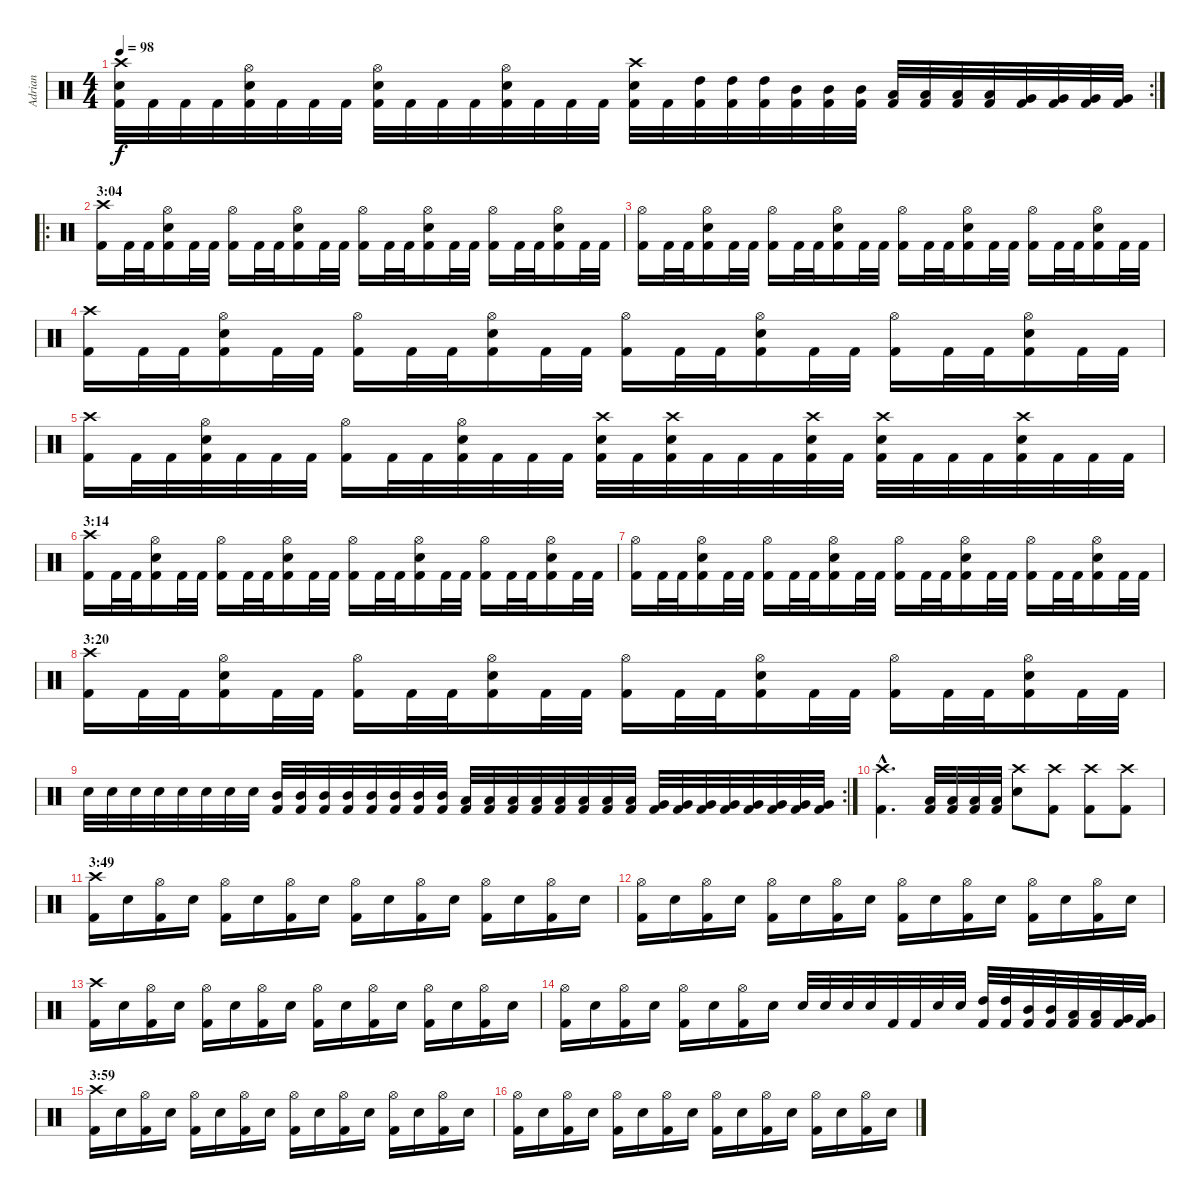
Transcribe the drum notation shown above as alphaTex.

\track ("Adrian" "Adrian") {instrument percussion}
\staff {score}
\articulation defaults
\rc 2
\ts (4 4)
\tempo 98
\clef neutral
\ks c
("Kick (hit) 2" "Snare (hit) 2" "Crash high (hit)").32{dy f} "Kick (hit) 2".32 "Kick (hit) 2".32 "Kick (hit) 2".32 ("Kick (hit) 2" "Snare (hit) 2" "Hi-Hat (open)").32 "Kick (hit) 2".32 "Kick (hit) 2".32 "Kick (hit) 2".32 ("Kick (hit) 2" "Snare (hit) 2" "Hi-Hat (open)").32 "Kick (hit) 2".32 "Kick (hit) 2".32 "Kick (hit) 2".32 ("Kick (hit) 2" "Snare (hit) 2" "Hi-Hat (open)").32 "Kick (hit) 2".32 "Kick (hit) 2".32 "Kick (hit) 2".32 ("Kick (hit) 2" "Snare (hit) 2" "Crash high (hit)").32 "Kick (hit) 2".32 ("Kick (hit) 2" "High Tom (hit)").32 ("Kick (hit) 2" "High Tom (hit)").32 ("Kick (hit) 2" "High Tom (hit)").32 ("Kick (hit) 2" "Mid Tom (hit)").32 ("Kick (hit) 2" "Mid Tom (hit)").32 ("Kick (hit) 2" "Mid Tom (hit)").32 ("Kick (hit) 2" "Low Tom (hit)").32 ("Kick (hit) 2" "Low Tom (hit)").32 ("Kick (hit) 2" "Low Tom (hit)").32 ("Kick (hit) 2" "Low Tom (hit)").32 ("Kick (hit) 2" "Very Low Tom (hit)").32 ("Kick (hit) 2" "Very Low Tom (hit)").32 ("Kick (hit) 2" "Very Low Tom (hit)").32 ("Kick (hit) 2" "Very Low Tom (hit)").32 |
\ro
\section ("" "3:04")
("Kick (hit) 2" "Crash high (hit)").16 "Kick (hit) 2".32 "Kick (hit) 2".32 ("Kick (hit) 2" "Snare (hit) 2" "Hi-Hat (open)").16 "Kick (hit) 2".32 "Kick (hit) 2".32 ("Kick (hit) 2" "Hi-Hat (open)").16 "Kick (hit) 2".32 "Kick (hit) 2".32 ("Kick (hit) 2" "Snare (hit) 2" "Hi-Hat (open)").16 "Kick (hit) 2".32 "Kick (hit) 2".32 ("Kick (hit) 2" "Hi-Hat (open)").16 "Kick (hit) 2".32 "Kick (hit) 2".32 ("Kick (hit) 2" "Snare (hit) 2" "Hi-Hat (open)").16 "Kick (hit) 2".32 "Kick (hit) 2".32 ("Kick (hit) 2" "Hi-Hat (open)").16 "Kick (hit) 2".32 "Kick (hit) 2".32 ("Kick (hit) 2" "Snare (hit) 2" "Hi-Hat (open)").16 "Kick (hit) 2".32 "Kick (hit) 2".32 |
("Kick (hit) 2" "Hi-Hat (open)").16 "Kick (hit) 2".32 "Kick (hit) 2".32 ("Kick (hit) 2" "Snare (hit) 2" "Hi-Hat (open)").16 "Kick (hit) 2".32 "Kick (hit) 2".32 ("Kick (hit) 2" "Hi-Hat (open)").16 "Kick (hit) 2".32 "Kick (hit) 2".32 ("Kick (hit) 2" "Snare (hit) 2" "Hi-Hat (open)").16 "Kick (hit) 2".32 "Kick (hit) 2".32 ("Kick (hit) 2" "Hi-Hat (open)").16 "Kick (hit) 2".32 "Kick (hit) 2".32 ("Kick (hit) 2" "Snare (hit) 2" "Hi-Hat (open)").16 "Kick (hit) 2".32 "Kick (hit) 2".32 ("Kick (hit) 2" "Hi-Hat (open)").16 "Kick (hit) 2".32 "Kick (hit) 2".32 ("Kick (hit) 2" "Snare (hit) 2" "Hi-Hat (open)").16 "Kick (hit) 2".32 "Kick (hit) 2".32 |
("Kick (hit) 2" "Crash high (hit)").16 "Kick (hit) 2".32 "Kick (hit) 2".32 ("Kick (hit) 2" "Snare (hit) 2" "Hi-Hat (open)").16 "Kick (hit) 2".32 "Kick (hit) 2".32 ("Kick (hit) 2" "Hi-Hat (open)").16 "Kick (hit) 2".32 "Kick (hit) 2".32 ("Kick (hit) 2" "Snare (hit) 2" "Hi-Hat (open)").16 "Kick (hit) 2".32 "Kick (hit) 2".32 ("Kick (hit) 2" "Hi-Hat (open)").16 "Kick (hit) 2".32 "Kick (hit) 2".32 ("Kick (hit) 2" "Snare (hit) 2" "Hi-Hat (open)").16 "Kick (hit) 2".32 "Kick (hit) 2".32 ("Kick (hit) 2" "Hi-Hat (open)").16 "Kick (hit) 2".32 "Kick (hit) 2".32 ("Kick (hit) 2" "Snare (hit) 2" "Hi-Hat (open)").16 "Kick (hit) 2".32 "Kick (hit) 2".32 |
("Kick (hit) 2" "Crash high (hit)").16 "Kick (hit) 2".32 "Kick (hit) 2".32 ("Kick (hit) 2" "Snare (hit) 2" "Hi-Hat (open)").32 "Kick (hit) 2".32 "Kick (hit) 2".32 "Kick (hit) 2".32 ("Kick (hit) 2" "Hi-Hat (open)").16 "Kick (hit) 2".32 "Kick (hit) 2".32 ("Kick (hit) 2" "Snare (hit) 2" "Hi-Hat (open)").32 "Kick (hit) 2".32 "Kick (hit) 2".32 "Kick (hit) 2".32 ("Kick (hit) 2" "Snare (hit) 2" "Crash high (hit)").32 "Kick (hit) 2".32 ("Kick (hit) 2" "Snare (hit) 2" "Crash high (hit)").32 "Kick (hit) 2".32 "Kick (hit) 2".32 "Kick (hit) 2".32 ("Kick (hit) 2" "Snare (hit) 2" "Crash high (hit)").32 "Kick (hit) 2".32 ("Kick (hit) 2" "Snare (hit) 2" "Crash high (hit)").32 "Kick (hit) 2".32 "Kick (hit) 2".32 "Kick (hit) 2".32 ("Kick (hit) 2" "Snare (hit) 2" "Crash high (hit)").32 "Kick (hit) 2".32 "Kick (hit) 2".32 "Kick (hit) 2".32 |
\section ("" "3:14")
("Kick (hit) 2" "Crash high (hit)").16 "Kick (hit) 2".32 "Kick (hit) 2".32 ("Kick (hit) 2" "Snare (hit) 2" "Hi-Hat (open)").16 "Kick (hit) 2".32 "Kick (hit) 2".32 ("Kick (hit) 2" "Hi-Hat (open)").16 "Kick (hit) 2".32 "Kick (hit) 2".32 ("Kick (hit) 2" "Snare (hit) 2" "Hi-Hat (open)").16 "Kick (hit) 2".32 "Kick (hit) 2".32 ("Kick (hit) 2" "Hi-Hat (open)").16 "Kick (hit) 2".32 "Kick (hit) 2".32 ("Kick (hit) 2" "Snare (hit) 2" "Hi-Hat (open)").16 "Kick (hit) 2".32 "Kick (hit) 2".32 ("Kick (hit) 2" "Hi-Hat (open)").16 "Kick (hit) 2".32 "Kick (hit) 2".32 ("Kick (hit) 2" "Snare (hit) 2" "Hi-Hat (open)").16 "Kick (hit) 2".32 "Kick (hit) 2".32 |
("Kick (hit) 2" "Hi-Hat (open)").16 "Kick (hit) 2".32 "Kick (hit) 2".32 ("Kick (hit) 2" "Snare (hit) 2" "Hi-Hat (open)").16 "Kick (hit) 2".32 "Kick (hit) 2".32 ("Kick (hit) 2" "Hi-Hat (open)").16 "Kick (hit) 2".32 "Kick (hit) 2".32 ("Kick (hit) 2" "Snare (hit) 2" "Hi-Hat (open)").16 "Kick (hit) 2".32 "Kick (hit) 2".32 ("Kick (hit) 2" "Hi-Hat (open)").16 "Kick (hit) 2".32 "Kick (hit) 2".32 ("Kick (hit) 2" "Snare (hit) 2" "Hi-Hat (open)").16 "Kick (hit) 2".32 "Kick (hit) 2".32 ("Kick (hit) 2" "Hi-Hat (open)").16 "Kick (hit) 2".32 "Kick (hit) 2".32 ("Kick (hit) 2" "Snare (hit) 2" "Hi-Hat (open)").16 "Kick (hit) 2".32 "Kick (hit) 2".32 |
\section ("" "3:20")
("Kick (hit) 2" "Crash high (hit)").16 "Kick (hit) 2".32 "Kick (hit) 2".32 ("Kick (hit) 2" "Snare (hit) 2" "Hi-Hat (open)").16 "Kick (hit) 2".32 "Kick (hit) 2".32 ("Kick (hit) 2" "Hi-Hat (open)").16 "Kick (hit) 2".32 "Kick (hit) 2".32 ("Kick (hit) 2" "Snare (hit) 2" "Hi-Hat (open)").16 "Kick (hit) 2".32 "Kick (hit) 2".32 ("Kick (hit) 2" "Hi-Hat (open)").16 "Kick (hit) 2".32 "Kick (hit) 2".32 ("Kick (hit) 2" "Snare (hit) 2" "Hi-Hat (open)").16 "Kick (hit) 2".32 "Kick (hit) 2".32 ("Kick (hit) 2" "Hi-Hat (open)").16 "Kick (hit) 2".32 "Kick (hit) 2".32 ("Kick (hit) 2" "Snare (hit) 2" "Hi-Hat (open)").16 "Kick (hit) 2".32 "Kick (hit) 2".32 |
\rc 2 "Snare (hit) 2".32 "Snare (hit) 2".32 "Snare (hit) 2".32 "Snare (hit) 2".32 "Snare (hit) 2".32 "Snare (hit) 2".32 "Snare (hit) 2".32 "Snare (hit) 2".32
("Kick (hit) 2" "Mid Tom (hit)").32 ("Kick (hit) 2" "Mid Tom (hit)").32 ("Kick (hit) 2" "Mid Tom (hit)").32 ("Kick (hit) 2" "Mid Tom (hit)").32 ("Kick (hit) 2" "Mid Tom (hit)").32 ("Kick (hit) 2" "Mid Tom (hit)").32 ("Kick (hit) 2" "Mid Tom (hit)").32 ("Kick (hit) 2" "Mid Tom (hit)").32 ("Kick (hit) 2" "Low Tom (hit)").32 ("Kick (hit) 2" "Low Tom (hit)").32 ("Kick (hit) 2" "Low Tom (hit)").32 ("Kick (hit) 2" "Low Tom (hit)").32 ("Kick (hit) 2" "Low Tom (hit)").32 ("Kick (hit) 2" "Low Tom (hit)").32 ("Kick (hit) 2" "Low Tom (hit)").32 ("Kick (hit) 2" "Low Tom (hit)").32 ("Kick (hit) 2" "Very Low Tom (hit)").32 ("Kick (hit) 2" "Very Low Tom (hit)").32 ("Kick (hit) 2" "Very Low Tom (hit)").32 ("Kick (hit) 2" "Very Low Tom (hit)").32 ("Kick (hit) 2" "Very Low Tom (hit)").32 ("Kick (hit) 2" "Very Low Tom (hit)").32 ("Kick (hit) 2" "Very Low Tom (hit)").32 ("Kick (hit) 2" "Very Low Tom (hit)").32 |
("Kick (hit) 2"{hac} "Crash high (hit)"{hac}).4{d} ("Kick (hit) 2" "Low Tom (hit)").32 ("Kick (hit) 2" "Low Tom (hit)").32 ("Kick (hit) 2" "Low Tom (hit)").32 ("Kick (hit) 2" "Low Tom (hit)").32 ("Snare (hit) 2" "Crash high (hit)").8 ("Kick (hit) 2" "Crash high (hit)").8 ("Kick (hit) 2" "Crash high (hit)").8 ("Kick (hit) 2" "Crash high (hit)").8 |
\section ("" "3:49")
("Kick (hit) 2" "Crash high (hit)").16 "Snare (hit) 2".16 ("Kick (hit) 2" "Hi-Hat (open)").16 "Snare (hit) 2".16 ("Kick (hit) 2" "Hi-Hat (open)").16 "Snare (hit) 2".16 ("Kick (hit) 2" "Hi-Hat (open)").16 "Snare (hit) 2".16 ("Kick (hit) 2" "Hi-Hat (open)").16 "Snare (hit) 2".16 ("Kick (hit) 2" "Hi-Hat (open)").16 "Snare (hit) 2".16 ("Kick (hit) 2" "Hi-Hat (open)").16 "Snare (hit) 2".16 ("Kick (hit) 2" "Hi-Hat (open)").16 "Snare (hit) 2".16 |
("Kick (hit) 2" "Hi-Hat (open)").16 "Snare (hit) 2".16 ("Kick (hit) 2" "Hi-Hat (open)").16 "Snare (hit) 2".16 ("Kick (hit) 2" "Hi-Hat (open)").16 "Snare (hit) 2".16 ("Kick (hit) 2" "Hi-Hat (open)").16 "Snare (hit) 2".16 ("Kick (hit) 2" "Hi-Hat (open)").16 "Snare (hit) 2".16 ("Kick (hit) 2" "Hi-Hat (open)").16 "Snare (hit) 2".16 ("Kick (hit) 2" "Hi-Hat (open)").16 "Snare (hit) 2".16 ("Kick (hit) 2" "Hi-Hat (open)").16 "Snare (hit) 2".16 |
("Kick (hit) 2" "Crash high (hit)").16 "Snare (hit) 2".16 ("Kick (hit) 2" "Hi-Hat (open)").16 "Snare (hit) 2".16 ("Kick (hit) 2" "Hi-Hat (open)").16 "Snare (hit) 2".16 ("Kick (hit) 2" "Hi-Hat (open)").16 "Snare (hit) 2".16 ("Kick (hit) 2" "Hi-Hat (open)").16 "Snare (hit) 2".16 ("Kick (hit) 2" "Hi-Hat (open)").16 "Snare (hit) 2".16 ("Kick (hit) 2" "Hi-Hat (open)").16 "Snare (hit) 2".16 ("Kick (hit) 2" "Hi-Hat (open)").16 "Snare (hit) 2".16 |
("Kick (hit) 2" "Hi-Hat (open)").16 "Snare (hit) 2".16 ("Kick (hit) 2" "Hi-Hat (open)").16 "Snare (hit) 2".16 ("Kick (hit) 2" "Hi-Hat (open)").16 "Snare (hit) 2".16 ("Kick (hit) 2" "Hi-Hat (open)").16 "Snare (hit) 2".16 "Snare (hit) 2".32 "Snare (hit) 2".32 "Snare (hit) 2".32 "Snare (hit) 2".32 "Kick (hit) 2".32 "Kick (hit) 2".32 "Snare (hit) 2".32 "Snare (hit) 2".32 ("Kick (hit) 2" "High Tom (hit)").32 ("Kick (hit) 2" "High Tom (hit)").32 ("Kick (hit) 2" "Mid Tom (hit)").32 ("Kick (hit) 2" "Mid Tom (hit)").32 ("Kick (hit) 2" "Low Tom (hit)").32 ("Kick (hit) 2" "Low Tom (hit)").32 ("Kick (hit) 2" "Very Low Tom (hit)").32 ("Kick (hit) 2" "Very Low Tom (hit)").32 |
\section ("" "3:59")
("Kick (hit) 2" "Crash high (hit)").16 "Snare (hit) 2".16 ("Kick (hit) 2" "Hi-Hat (open)").16 "Snare (hit) 2".16 ("Kick (hit) 2" "Hi-Hat (open)").16 "Snare (hit) 2".16 ("Kick (hit) 2" "Hi-Hat (open)").16 "Snare (hit) 2".16 ("Kick (hit) 2" "Hi-Hat (open)").16 "Snare (hit) 2".16 ("Kick (hit) 2" "Hi-Hat (open)").16 "Snare (hit) 2".16 ("Kick (hit) 2" "Hi-Hat (open)").16 "Snare (hit) 2".16 ("Kick (hit) 2" "Hi-Hat (open)").16 "Snare (hit) 2".16 |
("Kick (hit) 2" "Hi-Hat (open)").16 "Snare (hit) 2".16 ("Kick (hit) 2" "Hi-Hat (open)").16 "Snare (hit) 2".16 ("Kick (hit) 2" "Hi-Hat (open)").16 "Snare (hit) 2".16 ("Kick (hit) 2" "Hi-Hat (open)").16 "Snare (hit) 2".16 ("Kick (hit) 2" "Hi-Hat (open)").16 "Snare (hit) 2".16 ("Kick (hit) 2" "Hi-Hat (open)").16 "Snare (hit) 2".16 ("Kick (hit) 2" "Hi-Hat (open)").16 "Snare (hit) 2".16 ("Kick (hit) 2" "Hi-Hat (open)").16 "Snare (hit) 2".16
